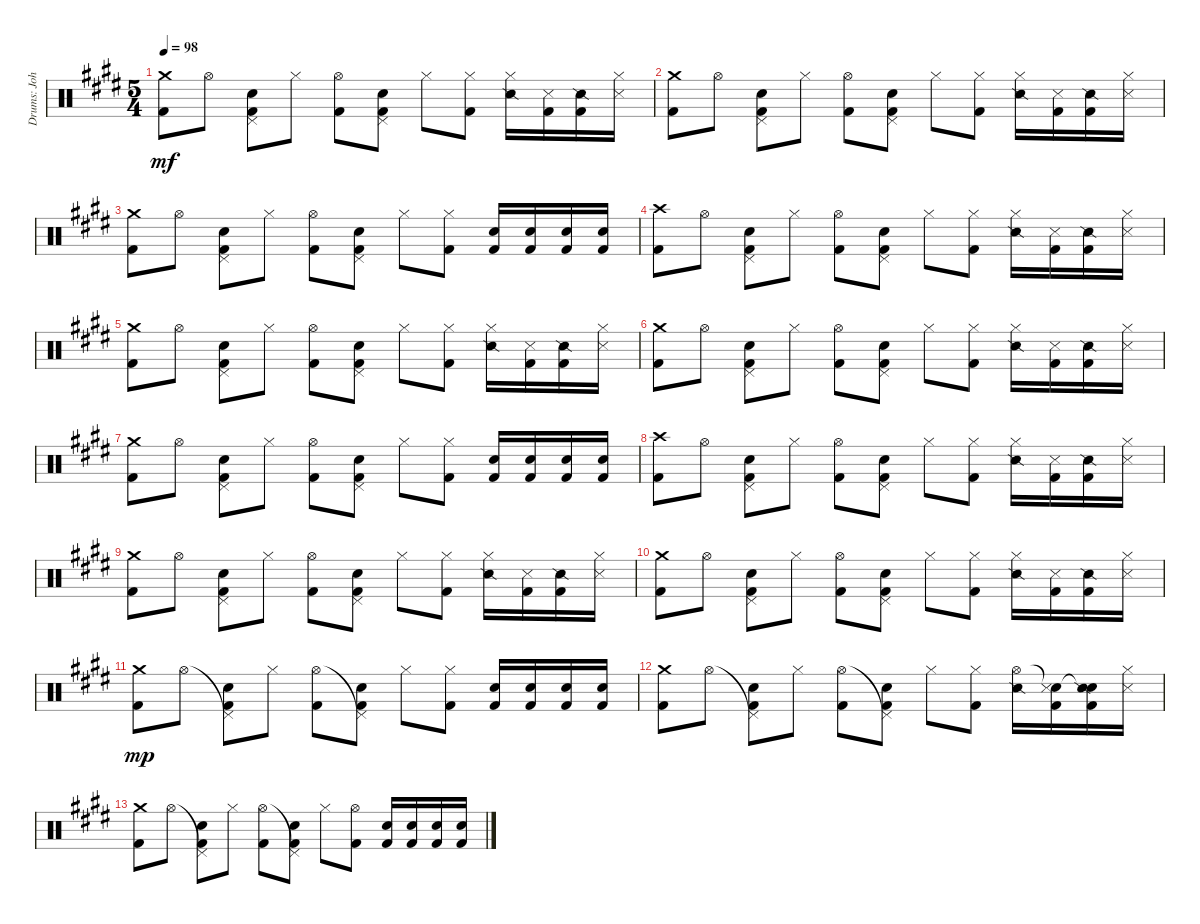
\track ("Drums: John" "Drums: Joh") {instrument percussion}
\staff {score}
\articulation defaults
\ts (5 4)
\tempo 98
\clef neutral
\ks e
("Crash medium (hit)" "Kick (hit) 2").8{dy mf} "Hi-Hat (open)".8 ("Pedal Hi-Hat (hit)" "Snare (hit) 2" "Kick (hit) 2").8 "Hi-Hat (closed)".8 ("Hi-Hat (open)" "Kick (hit) 2").8 ("Pedal Hi-Hat (hit)" "Snare (hit) 2" "Kick (hit) 2").8 "Hi-Hat (closed)".8 ("Hi-Hat (closed)" "Kick (hit) 2").8 ("Hi-Hat (closed)" "Snare (side stick) 2").16 ("Kick (hit) 2" "Snare (side stick) 3").16 ("Kick (hit) 2" "Snare (side stick) 2").16 ("Hi-Hat (closed)" "Snare (side stick) 3").16 |
("Crash medium (hit)" "Kick (hit) 2").8 "Hi-Hat (open)".8 ("Pedal Hi-Hat (hit)" "Snare (hit) 2" "Kick (hit) 2").8 "Hi-Hat (closed)".8 ("Hi-Hat (open)" "Kick (hit) 2").8 ("Pedal Hi-Hat (hit)" "Snare (hit) 2" "Kick (hit) 2").8 "Hi-Hat (closed)".8 ("Hi-Hat (closed)" "Kick (hit) 2").8 ("Hi-Hat (closed)" "Snare (side stick) 2").16 ("Kick (hit) 2" "Snare (side stick) 3").16 ("Kick (hit) 2" "Snare (side stick) 2").16 ("Hi-Hat (closed)" "Snare (side stick) 3").16 |
("Crash medium (hit)" "Kick (hit) 2").8 "Hi-Hat (open)".8 ("Pedal Hi-Hat (hit)" "Snare (hit) 2" "Kick (hit) 2").8 "Hi-Hat (closed)".8 ("Hi-Hat (open)" "Kick (hit) 2").8 ("Pedal Hi-Hat (hit)" "Snare (hit) 2" "Kick (hit) 2").8 "Hi-Hat (closed)".8 ("Hi-Hat (closed)" "Kick (hit) 2").8 ("Electric Snare (hit)" "Kick (hit) 2").16 ("Electric Snare (hit)" "Kick (hit) 2").16 ("Electric Snare (hit)" "Kick (hit) 2").16 ("Electric Snare (hit)" "Kick (hit) 2").16 |
("Crash high (hit)" "Kick (hit) 2").8 "Hi-Hat (open)".8 ("Pedal Hi-Hat (hit)" "Snare (hit) 2" "Kick (hit) 2").8 "Hi-Hat (closed)".8 ("Hi-Hat (open)" "Kick (hit) 2").8 ("Pedal Hi-Hat (hit)" "Snare (hit) 2" "Kick (hit) 2").8 "Hi-Hat (closed)".8 ("Hi-Hat (closed)" "Kick (hit) 2").8 ("Hi-Hat (closed)" "Snare (side stick) 2").16 ("Kick (hit) 2" "Snare (side stick) 3").16 ("Kick (hit) 2" "Snare (side stick) 2").16 ("Hi-Hat (closed)" "Snare (side stick) 3").16 |
("Crash medium (hit)" "Kick (hit) 2").8 "Hi-Hat (open)".8 ("Pedal Hi-Hat (hit)" "Snare (hit) 2" "Kick (hit) 2").8 "Hi-Hat (closed)".8 ("Hi-Hat (open)" "Kick (hit) 2").8 ("Pedal Hi-Hat (hit)" "Snare (hit) 2" "Kick (hit) 2").8 "Hi-Hat (closed)".8 ("Hi-Hat (closed)" "Kick (hit) 2").8 ("Hi-Hat (closed)" "Snare (side stick) 2").16 ("Kick (hit) 2" "Snare (side stick) 3").16 ("Kick (hit) 2" "Snare (side stick) 2").16 ("Hi-Hat (closed)" "Snare (side stick) 3").16 |
("Crash medium (hit)" "Kick (hit) 2").8 "Hi-Hat (open)".8 ("Pedal Hi-Hat (hit)" "Snare (hit) 2" "Kick (hit) 2").8 "Hi-Hat (closed)".8 ("Hi-Hat (open)" "Kick (hit) 2").8 ("Pedal Hi-Hat (hit)" "Snare (hit) 2" "Kick (hit) 2").8 "Hi-Hat (closed)".8 ("Hi-Hat (closed)" "Kick (hit) 2").8 ("Hi-Hat (closed)" "Snare (side stick) 2").16 ("Kick (hit) 2" "Snare (side stick) 3").16 ("Kick (hit) 2" "Snare (side stick) 2").16 ("Hi-Hat (closed)" "Snare (side stick) 3").16 |
("Crash medium (hit)" "Kick (hit) 2").8 "Hi-Hat (open)".8 ("Pedal Hi-Hat (hit)" "Snare (hit) 2" "Kick (hit) 2").8 "Hi-Hat (closed)".8 ("Hi-Hat (open)" "Kick (hit) 2").8 ("Pedal Hi-Hat (hit)" "Snare (hit) 2" "Kick (hit) 2").8 "Hi-Hat (closed)".8 ("Hi-Hat (closed)" "Kick (hit) 2").8 ("Electric Snare (hit)" "Kick (hit) 2").16 ("Electric Snare (hit)" "Kick (hit) 2").16 ("Electric Snare (hit)" "Kick (hit) 2").16 ("Electric Snare (hit)" "Kick (hit) 2").16 |
("Crash high (hit)" "Kick (hit) 2").8 "Hi-Hat (open)".8 ("Pedal Hi-Hat (hit)" "Snare (hit) 2" "Kick (hit) 2").8 "Hi-Hat (closed)".8 ("Hi-Hat (open)" "Kick (hit) 2").8 ("Pedal Hi-Hat (hit)" "Snare (hit) 2" "Kick (hit) 2").8 "Hi-Hat (closed)".8 ("Hi-Hat (closed)" "Kick (hit) 2").8 ("Hi-Hat (closed)" "Snare (side stick) 2").16 ("Kick (hit) 2" "Snare (side stick) 3").16 ("Kick (hit) 2" "Snare (side stick) 2").16 ("Hi-Hat (closed)" "Snare (side stick) 3").16 |
("Crash medium (hit)" "Kick (hit) 2").8 "Hi-Hat (open)".8 ("Pedal Hi-Hat (hit)" "Snare (hit) 2" "Kick (hit) 2").8 "Hi-Hat (closed)".8 ("Hi-Hat (open)" "Kick (hit) 2").8 ("Pedal Hi-Hat (hit)" "Snare (hit) 2" "Kick (hit) 2").8 "Hi-Hat (closed)".8 ("Hi-Hat (closed)" "Kick (hit) 2").8 ("Hi-Hat (closed)" "Snare (side stick) 2").16 ("Kick (hit) 2" "Snare (side stick) 3").16 ("Kick (hit) 2" "Snare (side stick) 2").16 ("Hi-Hat (closed)" "Snare (side stick) 3").16 |
("Crash medium (hit)" "Kick (hit) 2").8 "Hi-Hat (open)".8 ("Pedal Hi-Hat (hit)" "Snare (hit) 2" "Kick (hit) 2").8 "Hi-Hat (closed)".8 ("Hi-Hat (open)" "Kick (hit) 2").8 ("Pedal Hi-Hat (hit)" "Snare (hit) 2" "Kick (hit) 2").8 "Hi-Hat (closed)".8 ("Hi-Hat (closed)" "Kick (hit) 2").8 ("Hi-Hat (closed)" "Snare (side stick) 2").16 ("Kick (hit) 2" "Snare (side stick) 3").16 ("Kick (hit) 2" "Snare (side stick) 2").16 ("Hi-Hat (closed)" "Snare (side stick) 3").16 |
("Crash medium (hit)" "Kick (hit) 2").8{dy mp} "Hi-Hat (open)".8 ("Pedal Hi-Hat (hit)"{t} "Snare (hit) 2" "Kick (hit) 2").8 "Hi-Hat (closed)".8 ("Hi-Hat (open)" "Kick (hit) 2").8 ("Pedal Hi-Hat (hit)"{t} "Snare (hit) 2" "Kick (hit) 2").8 "Hi-Hat (closed)".8 ("Hi-Hat (closed)" "Kick (hit) 2").8 ("Electric Snare (hit)" "Kick (hit) 2").16 ("Electric Snare (hit)" "Kick (hit) 2").16 ("Electric Snare (hit)" "Kick (hit) 2").16 ("Electric Snare (hit)" "Kick (hit) 2").16 |
("Crash medium (hit)" "Kick (hit) 2").8 "Hi-Hat (open)".8 ("Pedal Hi-Hat (hit)"{t} "Snare (hit) 2" "Kick (hit) 2").8 "Hi-Hat (closed)".8 ("Hi-Hat (open)" "Kick (hit) 2").8 ("Pedal Hi-Hat (hit)"{t} "Snare (hit) 2" "Kick (hit) 2").8 "Hi-Hat (closed)".8 ("Hi-Hat (closed)" "Kick (hit) 2").8 ("Hi-Hat (open)" "Snare (side stick) 2").16 ("Snare (hit)"{t} "Kick (hit) 2" "Snare (side stick) 3").16 ("Snare (hit)"{t} "Kick (hit) 2" "Snare (side stick) 2").16 ("Hi-Hat (closed)" "Snare (side stick) 3").16 |
("Crash medium (hit)" "Kick (hit) 2").8 "Hi-Hat (open)".8 ("Pedal Hi-Hat (hit)"{t} "Snare (hit) 2" "Kick (hit) 2").8 "Hi-Hat (closed)".8 ("Hi-Hat (open)" "Kick (hit) 2").8 ("Pedal Hi-Hat (hit)"{t} "Snare (hit) 2" "Kick (hit) 2").8 "Hi-Hat (closed)".8 ("Hi-Hat (open)" "Kick (hit) 2").8 ("Electric Snare (hit)" "Kick (hit) 2").16 ("Electric Snare (hit)" "Kick (hit) 2").16 ("Electric Snare (hit)" "Kick (hit) 2").16 ("Electric Snare (hit)" "Kick (hit) 2").16
